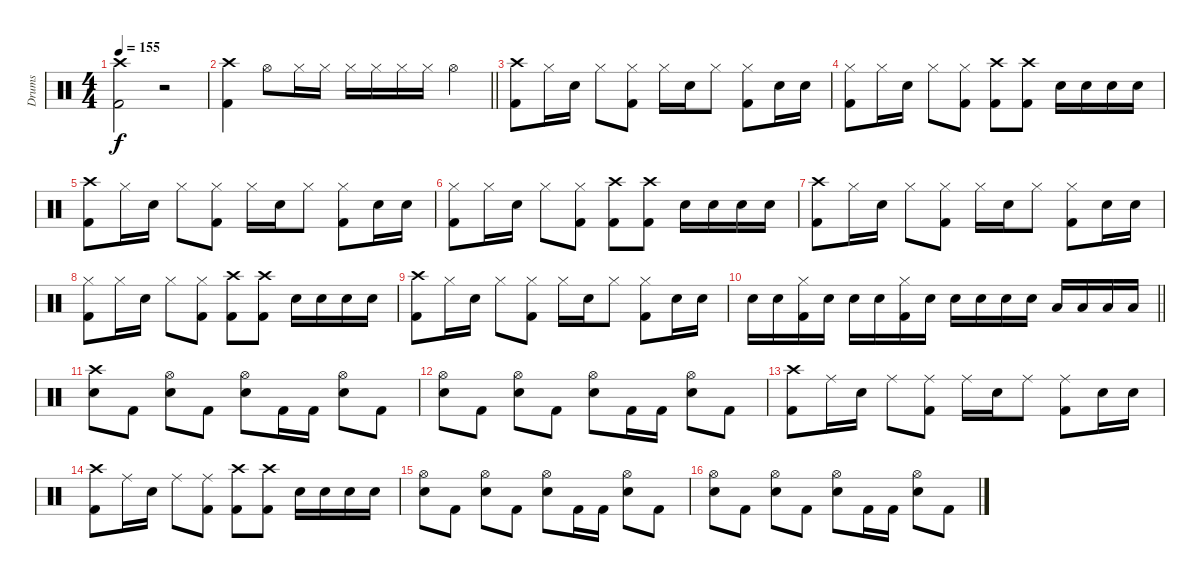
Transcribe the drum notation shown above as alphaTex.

\track ("Drums" "Drums") {instrument percussion}
\staff {score}
\articulation defaults
\ts (4 4)
\tempo 155
\clef neutral
\ks c
("Crash high (hit)" "Kick (hit) 2").2{dy f} r.2 |
\barLineRight lightlight
("Crash high (hit)" "Kick (hit) 2").4 "Hi-Hat (open)".8 "Hi-Hat (closed)".16 "Hi-Hat (closed)".16 "Hi-Hat (closed)".16 "Hi-Hat (closed)".16 "Hi-Hat (closed)".16 "Hi-Hat (closed)".16 "Hi-Hat (open)".4 |
("Crash high (hit)" "Kick (hit) 2").8 "Hi-Hat (closed)".16 "Snare (hit) 2".16 "Hi-Hat (closed)".8 ("Hi-Hat (closed)" "Kick (hit) 2").8 "Hi-Hat (closed)".16 "Snare (hit) 2".16 "Hi-Hat (closed)".8 ("Hi-Hat (closed)" "Kick (hit) 2").8 "Snare (hit) 2".16 "Snare (hit) 2".16 |
("Hi-Hat (closed)" "Kick (hit) 2").8 "Hi-Hat (closed)".16 "Snare (hit) 2".16 "Hi-Hat (closed)".8 ("Hi-Hat (closed)" "Kick (hit) 2").8 ("Crash high (hit)" "Kick (hit) 2").8 ("Crash high (hit)" "Kick (hit) 2").8 "Snare (hit) 2".16 "Snare (hit) 2".16 "Snare (hit) 2".16 "Snare (hit) 2".16 |
("Crash high (hit)" "Kick (hit) 2").8 "Hi-Hat (closed)".16 "Snare (hit) 2".16 "Hi-Hat (closed)".8 ("Hi-Hat (closed)" "Kick (hit) 2").8 "Hi-Hat (closed)".16 "Snare (hit) 2".16 "Hi-Hat (closed)".8 ("Hi-Hat (closed)" "Kick (hit) 2").8 "Snare (hit) 2".16 "Snare (hit) 2".16 |
("Hi-Hat (closed)" "Kick (hit) 2").8 "Hi-Hat (closed)".16 "Snare (hit) 2".16 "Hi-Hat (closed)".8 ("Hi-Hat (closed)" "Kick (hit) 2").8 ("Crash high (hit)" "Kick (hit) 2").8 ("Crash high (hit)" "Kick (hit) 2").8 "Snare (hit) 2".16 "Snare (hit) 2".16 "Snare (hit) 2".16 "Snare (hit) 2".16 |
("Crash high (hit)" "Kick (hit) 2").8 "Hi-Hat (closed)".16 "Snare (hit) 2".16 "Hi-Hat (closed)".8 ("Hi-Hat (closed)" "Kick (hit) 2").8 "Hi-Hat (closed)".16 "Snare (hit) 2".16 "Hi-Hat (closed)".8 ("Hi-Hat (closed)" "Kick (hit) 2").8 "Snare (hit) 2".16 "Snare (hit) 2".16 |
("Hi-Hat (closed)" "Kick (hit) 2").8 "Hi-Hat (closed)".16 "Snare (hit) 2".16 "Hi-Hat (closed)".8 ("Hi-Hat (closed)" "Kick (hit) 2").8 ("Crash high (hit)" "Kick (hit) 2").8 ("Crash high (hit)" "Kick (hit) 2").8 "Snare (hit) 2".16 "Snare (hit) 2".16 "Snare (hit) 2".16 "Snare (hit) 2".16 |
("Crash high (hit)" "Kick (hit) 2").8 "Hi-Hat (closed)".16 "Snare (hit) 2".16 "Hi-Hat (closed)".8 ("Hi-Hat (closed)" "Kick (hit) 2").8 "Hi-Hat (closed)".16 "Snare (hit) 2".16 "Hi-Hat (closed)".8 ("Hi-Hat (closed)" "Kick (hit) 2").8 "Snare (hit) 2".16 "Snare (hit) 2".16 |
\barLineRight lightlight "Snare (hit) 2".16 "Snare (hit) 2".16
("Hi-Hat (closed)" "Kick (hit) 2").16 "Snare (hit) 2".16 "Snare (hit) 2".16 "Snare (hit) 2".16 ("Hi-Hat (closed)" "Kick (hit) 2").16 "Snare (hit) 2".16 "Snare (hit) 2".16 "Snare (hit) 2".16 "Snare (hit) 2".16 "Snare (hit) 2".16 "Low Tom (hit)".16 "Low Tom (hit)".16 "Low Floor Tom (hit)".16 "Low Floor Tom (hit)".16 |
("Crash high (hit)" "Snare (hit) 2").8 "Kick (hit) 2".8 ("Hi-Hat (open)" "Snare (hit) 2").8 "Kick (hit) 2".8 ("Hi-Hat (open)" "Snare (hit) 2").8 "Kick (hit) 2".16 "Kick (hit) 2".16 ("Hi-Hat (open)" "Snare (hit) 2").8 "Kick (hit) 2".8 |
("Hi-Hat (open)" "Snare (hit) 2").8 "Kick (hit) 2".8 ("Hi-Hat (open)" "Snare (hit) 2").8 "Kick (hit) 2".8 ("Hi-Hat (open)" "Snare (hit) 2").8 "Kick (hit) 2".16 "Kick (hit) 2".16 ("Hi-Hat (open)" "Snare (hit) 2").8 "Kick (hit) 2".8 |
("Crash high (hit)" "Kick (hit) 2").8 "Ride (middle)".16 "Snare (hit) 2".16 "Ride (middle)".8 ("Ride (middle)" "Kick (hit) 2").8 "Ride (middle)".16 "Snare (hit) 2".16 "Ride (middle)".8 ("Ride (middle)" "Kick (hit) 2").8 "Snare (hit) 2".16 "Snare (hit) 2".16 |
("Crash high (hit)" "Kick (hit) 2").8 "Ride (middle)".16 "Snare (hit) 2".16 "Ride (middle)".8 ("Ride (middle)" "Kick (hit) 2").8 ("Crash high (hit)" "Kick (hit) 2").8 ("Crash high (hit)" "Kick (hit) 2").8 "Snare (hit) 2".16 "Snare (hit) 2".16 "Snare (hit) 2".16 "Snare (hit) 2".16 |
("Hi-Hat (open)" "Snare (hit) 2").8 "Kick (hit) 2".8 ("Hi-Hat (open)" "Snare (hit) 2").8 "Kick (hit) 2".8 ("Hi-Hat (open)" "Snare (hit) 2").8 "Kick (hit) 2".16 "Kick (hit) 2".16 ("Hi-Hat (open)" "Snare (hit) 2").8 "Kick (hit) 2".8 |
("Hi-Hat (open)" "Snare (hit) 2").8 "Kick (hit) 2".8 ("Hi-Hat (open)" "Snare (hit) 2").8 "Kick (hit) 2".8 ("Hi-Hat (open)" "Snare (hit) 2").8 "Kick (hit) 2".16 "Kick (hit) 2".16 ("Hi-Hat (open)" "Snare (hit) 2").8 "Kick (hit) 2".8
